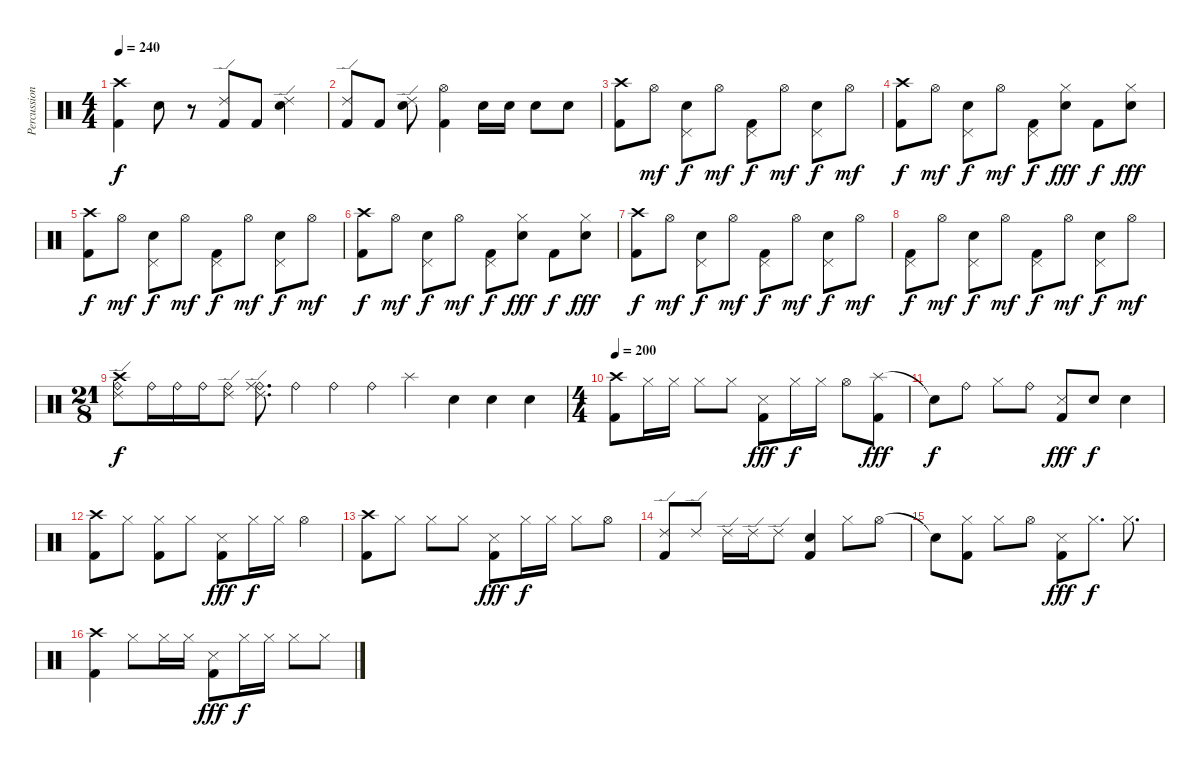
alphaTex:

\track ("Percussion" "Percussion") {instrument percussion}
\staff {score}
\articulation defaults
\ts (4 4)
\tempo 240
\clef neutral
\ks c
("Crash high (hit)" "Kick (hit) 2").4{dy f} "Electric Snare (hit)".8 r.8 ("Ride (edge) 2" "Kick (hit) 2").8 "Kick (hit) 2".8 ("Ride (edge) 2" "Electric Snare (hit)").4 |
("Ride (edge) 2" "Kick (hit) 2").8 "Kick (hit) 2".8 ("Ride (edge) 2" "Electric Snare (hit)").8 ("Hi-Hat (open)" "Kick (hit) 2").4 "Snare (hit) 2".16 "Snare (hit) 2".16 "Snare (hit) 2".8 "Snare (hit) 2".8 |
("Crash high (hit)" "Kick (hit) 2").8 "Hi-Hat (open)".8{dy mf} ("Pedal Hi-Hat (hit)" "Snare (hit) 2").8{dy f} "Hi-Hat (open)".8{dy mf} ("Pedal Hi-Hat (hit)" "Kick (hit) 2").8{dy f} "Hi-Hat (open)".8{dy mf} ("Pedal Hi-Hat (hit)" "Snare (hit) 2").8{dy f} "Hi-Hat (open)".8{dy mf} |
("Crash high (hit)" "Kick (hit) 2").8{dy f} "Hi-Hat (open)".8{dy mf} ("Pedal Hi-Hat (hit)" "Snare (hit) 2").8{dy f} "Hi-Hat (open)".8{dy mf} ("Pedal Hi-Hat (hit)" "Kick (hit) 2").8{dy f} ("Hi-Hat (closed)" "Snare (hit) 2").8{dy fff} "Kick (hit) 2".8{dy f} ("Hi-Hat (closed)" "Snare (hit) 2").8{dy fff} |
("Crash high (hit)" "Kick (hit) 2").8{dy f} "Hi-Hat (open)".8{dy mf} ("Pedal Hi-Hat (hit)" "Snare (hit) 2").8{dy f} "Hi-Hat (open)".8{dy mf} ("Pedal Hi-Hat (hit)" "Kick (hit) 2").8{dy f} "Hi-Hat (open)".8{dy mf} ("Pedal Hi-Hat (hit)" "Snare (hit) 2").8{dy f} "Hi-Hat (open)".8{dy mf} |
("Crash high (hit)" "Kick (hit) 2").8{dy f} "Hi-Hat (open)".8{dy mf} ("Pedal Hi-Hat (hit)" "Snare (hit) 2").8{dy f} "Hi-Hat (open)".8{dy mf} ("Pedal Hi-Hat (hit)" "Kick (hit) 2").8{dy f} ("Hi-Hat (closed)" "Snare (hit) 2").8{dy fff} "Kick (hit) 2".8{dy f} ("Hi-Hat (closed)" "Snare (hit) 2").8{dy fff} |
("Crash high (hit)" "Kick (hit) 2").8{dy f} "Hi-Hat (open)".8{dy mf} ("Pedal Hi-Hat (hit)" "Snare (hit) 2").8{dy f} "Hi-Hat (open)".8{dy mf} ("Pedal Hi-Hat (hit)" "Kick (hit) 2").8{dy f} "Hi-Hat (open)".8{dy mf} ("Pedal Hi-Hat (hit)" "Snare (hit) 2").8{dy f} "Hi-Hat (open)".8{dy mf} |
("Pedal Hi-Hat (hit)" "Kick (hit) 2").8{dy f} "Hi-Hat (open)".8{dy mf} ("Pedal Hi-Hat (hit)" "Snare (hit) 2").8{dy f} "Hi-Hat (open)".8{dy mf} ("Pedal Hi-Hat (hit)" "Kick (hit) 2").8{dy f} "Hi-Hat (open)".8{dy mf} ("Pedal Hi-Hat (hit)" "Snare (hit) 2").8{dy f} "Hi-Hat (open)".8{dy mf} |
\ts (21 8)
("Crash high (hit)" "Ride (edge) 2" "Ride (bell)").8{dy f} "Ride (bell)".16 "Ride (bell)".16 "Ride (bell)".16 ("Ride (edge) 2" "Ride (bell)").8 ("Ride (edge) 2" "Ride (bell)" "Ride (middle)").8{d} "Ride (bell)".4 "Ride (bell)".4 "Ride (bell)".4 "Splash (hit)".2 "Snare (hit)".4 "Snare (hit)".4 "Snare (hit)".4 |
\ts (4 4)
\tempo 200
("Crash high (hit)" "Kick (hit) 2").8 "Hi-Hat (closed)".16 "Hi-Hat (closed)".16 "Hi-Hat (closed)".8 "Hi-Hat (closed)".8 ("Metronome (hit)" "Kick (hit) 2").8{dy fff} "Hi-Hat (closed)".16{dy f} "Hi-Hat (closed)".16 "Hi-Hat (open)".8 ("Splash (hit)" "Kick (hit) 2").8{dy fff} |
"Snare (hit)"{t}.8{dy f} "Ride (bell)".8 "Hi-Hat (closed)".8 "Ride (bell)".8 ("Kick (hit) 2" "Metronome (hit)").8{dy fff} "Snare (hit) 2".8{dy f} "Snare (hit) 2".4 |
("Crash high (hit)" "Kick (hit) 2").8 "Hi-Hat (closed)".8 ("Hi-Hat (closed)" "Kick (hit) 2").8 "Hi-Hat (closed)".8 ("Metronome (hit)" "Kick (hit) 2").8{dy fff} "Hi-Hat (closed)".16{dy f} "Hi-Hat (closed)".16 "Hi-Hat (open)".4 |
("Crash high (hit)" "Kick (hit) 2").8 "Hi-Hat (closed)".8 "Hi-Hat (closed)".8 "Hi-Hat (closed)".8 ("Metronome (hit)" "Kick (hit) 2").8{dy fff} "Hi-Hat (closed)".16{dy f} "Hi-Hat (closed)".16 "Hi-Hat (closed)".8 "Hi-Hat (open)".8 |
("Ride (edge) 2" "Kick (hit) 2").8 "Ride (edge) 2".8 "Ride (edge) 2".16 "Ride (edge) 2".16 "Ride (edge) 2".8 ("Kick (hit) 2" "Electric Snare (hit)").4 "Hi-Hat (closed)".8 "Hi-Hat (open)".8 |
"Snare (hit)"{t}.8 ("Hi-Hat (closed)" "Kick (hit) 2").8 "Hi-Hat (closed)".8 "Hi-Hat (open)".8 ("Metronome (hit)" "Kick (hit) 2").8{dy fff} "Hi-Hat (closed)".8{d dy f} "Hi-Hat (closed)".8{d} |
("Crash high (hit)" "Kick (hit) 2").4 "Hi-Hat (closed)".8 "Hi-Hat (closed)".16 "Hi-Hat (closed)".16 ("Metronome (hit)" "Kick (hit) 2").8{dy fff} "Hi-Hat (closed)".16{dy f} "Hi-Hat (closed)".16 "Hi-Hat (closed)".8 "Hi-Hat (closed)".8
